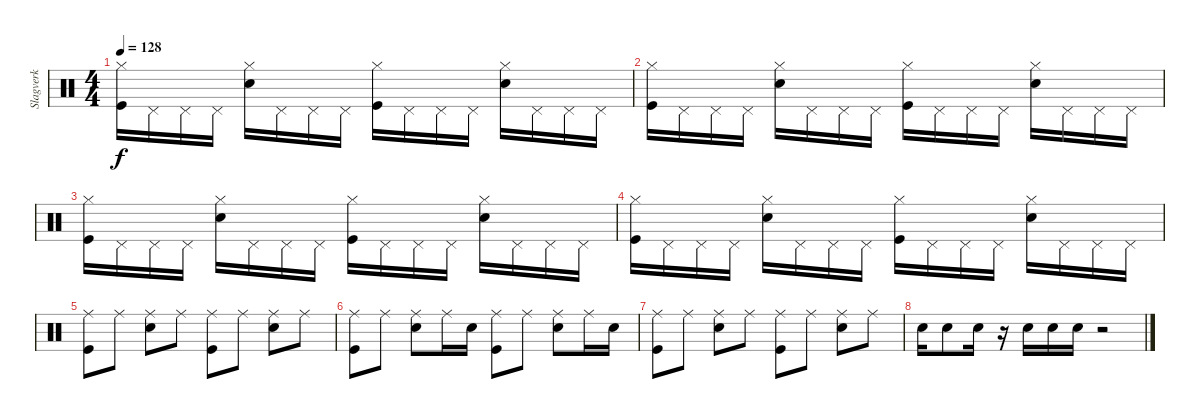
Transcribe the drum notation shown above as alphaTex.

\track ("Slagverk" "Slagverk") {instrument percussion}
\staff {score}
\articulation defaults
\ts (4 4)
\tempo 128
\clef neutral
\ks c
("Kick (hit)" "Hi-Hat (closed)").16{dy f} "Pedal Hi-Hat (hit)".16 "Pedal Hi-Hat (hit)".16 "Pedal Hi-Hat (hit)".16 ("Snare (hit) 2" "Hi-Hat (closed)").16 "Pedal Hi-Hat (hit)".16 "Pedal Hi-Hat (hit)".16 "Pedal Hi-Hat (hit)".16 ("Kick (hit)" "Hi-Hat (closed)").16 "Pedal Hi-Hat (hit)".16 "Pedal Hi-Hat (hit)".16 "Pedal Hi-Hat (hit)".16 ("Snare (hit) 2" "Hi-Hat (closed)").16 "Pedal Hi-Hat (hit)".16 "Pedal Hi-Hat (hit)".16 "Pedal Hi-Hat (hit)".16 |
("Kick (hit)" "Hi-Hat (closed)").16 "Pedal Hi-Hat (hit)".16 "Pedal Hi-Hat (hit)".16 "Pedal Hi-Hat (hit)".16 ("Snare (hit) 2" "Hi-Hat (closed)").16 "Pedal Hi-Hat (hit)".16 "Pedal Hi-Hat (hit)".16 "Pedal Hi-Hat (hit)".16 ("Kick (hit)" "Hi-Hat (closed)").16 "Pedal Hi-Hat (hit)".16 "Pedal Hi-Hat (hit)".16 "Pedal Hi-Hat (hit)".16 ("Snare (hit) 2" "Hi-Hat (closed)").16 "Pedal Hi-Hat (hit)".16 "Pedal Hi-Hat (hit)".16 "Pedal Hi-Hat (hit)".16 |
("Kick (hit)" "Hi-Hat (closed)").16 "Pedal Hi-Hat (hit)".16 "Pedal Hi-Hat (hit)".16 "Pedal Hi-Hat (hit)".16 ("Snare (hit) 2" "Hi-Hat (closed)").16 "Pedal Hi-Hat (hit)".16 "Pedal Hi-Hat (hit)".16 "Pedal Hi-Hat (hit)".16 ("Kick (hit)" "Hi-Hat (closed)").16 "Pedal Hi-Hat (hit)".16 "Pedal Hi-Hat (hit)".16 "Pedal Hi-Hat (hit)".16 ("Snare (hit) 2" "Hi-Hat (closed)").16 "Pedal Hi-Hat (hit)".16 "Pedal Hi-Hat (hit)".16 "Pedal Hi-Hat (hit)".16 |
("Kick (hit)" "Hi-Hat (closed)").16 "Pedal Hi-Hat (hit)".16 "Pedal Hi-Hat (hit)".16 "Pedal Hi-Hat (hit)".16 ("Snare (hit) 2" "Hi-Hat (closed)").16 "Pedal Hi-Hat (hit)".16 "Pedal Hi-Hat (hit)".16 "Pedal Hi-Hat (hit)".16 ("Kick (hit)" "Hi-Hat (closed)").16 "Pedal Hi-Hat (hit)".16 "Pedal Hi-Hat (hit)".16 "Pedal Hi-Hat (hit)".16 ("Snare (hit) 2" "Hi-Hat (closed)").16 "Pedal Hi-Hat (hit)".16 "Pedal Hi-Hat (hit)".16 "Pedal Hi-Hat (hit)".16 |
("Kick (hit)" "Ride (middle)").8 "Ride (middle)".8 ("Snare (hit) 2" "Ride (middle)").8 "Ride (middle)".8 ("Kick (hit)" "Ride (middle)").8 "Ride (middle)".8 ("Snare (hit) 2" "Ride (middle)").8 "Ride (middle)".8 |
("Kick (hit)" "Ride (middle)").8 "Ride (middle)".8 ("Snare (hit) 2" "Ride (middle)").8 "Ride (middle)".16 "Snare (hit) 2".16 ("Kick (hit)" "Ride (middle)").8 "Ride (middle)".8 ("Snare (hit) 2" "Ride (middle)").8 "Ride (middle)".16 "Snare (hit) 2".16 |
("Kick (hit)" "Ride (middle)").8 "Ride (middle)".8 ("Snare (hit) 2" "Ride (middle)").8 "Ride (middle)".8 ("Kick (hit)" "Ride (middle)").8 "Ride (middle)".8 ("Snare (hit) 2" "Ride (middle)").8 "Ride (middle)".8 |
"Snare (hit) 2".16 "Snare (hit) 2".8 "Snare (hit) 2".16 r.16 "Snare (hit) 2".16 "Snare (hit) 2".16 "Snare (hit) 2".16 r.2
